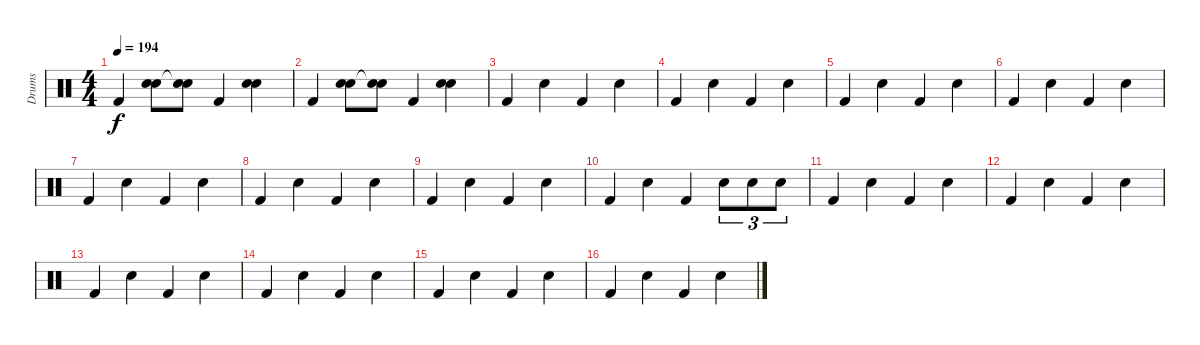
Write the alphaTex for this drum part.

\track ("Drums" "Drums") {instrument percussion}
\staff {score}
\articulation defaults
\ts (4 4)
\tempo 194
\clef neutral
\ks c "Kick (hit) 2".4{dy f}
("Snare (hit) 2" "Hand Clap (hit)").8 ("Snare (hit)"{t} "Hand Clap (hit)").8 "Kick (hit) 2".4 ("Snare (hit) 2" "Hand Clap (hit)").4 |
"Kick (hit) 2".4 ("Snare (hit) 2" "Hand Clap (hit)").8 ("Snare (hit)"{t} "Hand Clap (hit)").8 "Kick (hit) 2".4 ("Snare (hit) 2" "Hand Clap (hit)").4 |
"Kick (hit) 2".4 "Snare (hit) 2".4 "Kick (hit) 2".4 "Snare (hit) 2".4 |
"Kick (hit) 2".4 "Snare (hit) 2".4 "Kick (hit) 2".4 "Snare (hit) 2".4 |
"Kick (hit) 2".4 "Snare (hit) 2".4 "Kick (hit) 2".4 "Snare (hit) 2".4 |
"Kick (hit) 2".4 "Snare (hit) 2".4 "Kick (hit) 2".4 "Snare (hit) 2".4 |
"Kick (hit) 2".4 "Snare (hit) 2".4 "Kick (hit) 2".4 "Snare (hit) 2".4 |
"Kick (hit) 2".4 "Snare (hit) 2".4 "Kick (hit) 2".4 "Snare (hit) 2".4 |
"Kick (hit) 2".4 "Snare (hit) 2".4 "Kick (hit) 2".4 "Snare (hit) 2".4 |
"Kick (hit) 2".4 "Snare (hit) 2".4 "Kick (hit) 2".4 "Snare (hit) 2".8{tu (3 2)} "Snare (hit) 2".8{tu (3 2)} "Snare (hit) 2".8{tu (3 2)} |
"Kick (hit) 2".4 "Snare (hit) 2".4 "Kick (hit) 2".4 "Snare (hit) 2".4 |
"Kick (hit) 2".4 "Snare (hit) 2".4 "Kick (hit) 2".4 "Snare (hit) 2".4 |
"Kick (hit) 2".4 "Snare (hit) 2".4 "Kick (hit) 2".4 "Snare (hit) 2".4 |
"Kick (hit) 2".4{volume 0} "Snare (hit) 2".4 "Kick (hit) 2".4 "Snare (hit) 2".4 |
"Kick (hit) 2".4 "Snare (hit) 2".4 "Kick (hit) 2".4 "Snare (hit) 2".4 |
"Kick (hit) 2".4 "Snare (hit) 2".4 "Kick (hit) 2".4 "Snare (hit) 2".4
